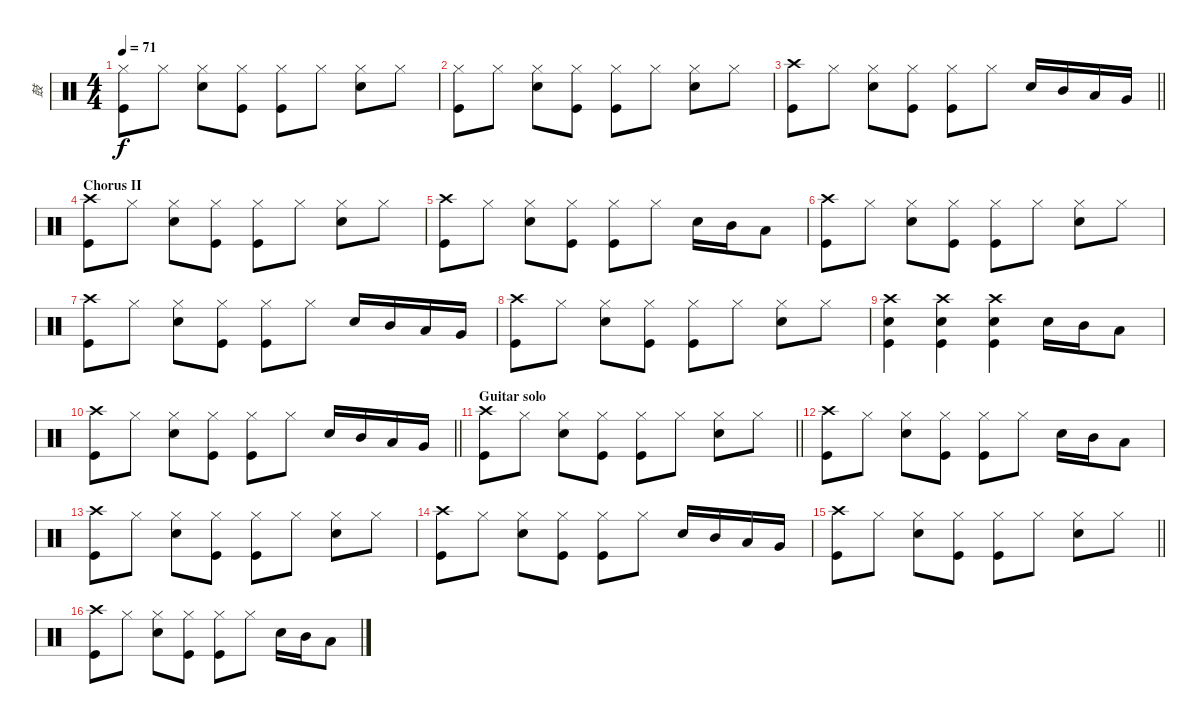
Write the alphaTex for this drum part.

\track ("鼓" "鼓") {instrument percussion}
\staff {score}
\articulation defaults
\ts (4 4)
\tempo 71
\clef neutral
\ks c
("Hi-Hat (closed)" "Kick (hit)").8{dy f} "Hi-Hat (closed)".8 ("Hi-Hat (closed)" "Electric Snare (hit)").8 ("Hi-Hat (closed)" "Kick (hit)").8 ("Hi-Hat (closed)" "Kick (hit)").8 "Hi-Hat (closed)".8 ("Hi-Hat (closed)" "Electric Snare (hit)").8 "Hi-Hat (closed)".8 |
("Hi-Hat (closed)" "Kick (hit)").8 "Hi-Hat (closed)".8 ("Hi-Hat (closed)" "Electric Snare (hit)").8 ("Hi-Hat (closed)" "Kick (hit)").8 ("Hi-Hat (closed)" "Kick (hit)").8 "Hi-Hat (closed)".8 ("Hi-Hat (closed)" "Electric Snare (hit)").8 "Hi-Hat (closed)".8 |
\barLineRight lightlight
("Crash high (hit)" "Kick (hit)").8 "Hi-Hat (closed)".8 ("Hi-Hat (closed)" "Electric Snare (hit)").8 ("Hi-Hat (closed)" "Kick (hit)").8 ("Hi-Hat (closed)" "Kick (hit)").8 "Hi-Hat (closed)".8 "Electric Snare (hit)".16 "Mid Tom (hit)".16 "Low Tom (hit)".16 "Very Low Tom (hit)".16 |
\section ("" "Chorus II")
("Crash high (hit)" "Kick (hit)").8 "Hi-Hat (closed)".8 ("Hi-Hat (closed)" "Electric Snare (hit)").8 ("Hi-Hat (closed)" "Kick (hit)").8 ("Hi-Hat (closed)" "Kick (hit)").8 "Hi-Hat (closed)".8 ("Hi-Hat (closed)" "Electric Snare (hit)").8 "Hi-Hat (closed)".8 |
("Crash high (hit)" "Kick (hit)").8 "Hi-Hat (closed)".8 ("Hi-Hat (closed)" "Electric Snare (hit)").8 ("Hi-Hat (closed)" "Kick (hit)").8 ("Hi-Hat (closed)" "Kick (hit)").8 "Hi-Hat (closed)".8 "Electric Snare (hit)".16 "Mid Tom (hit)".16 "Low Tom (hit)".8 |
("Crash high (hit)" "Kick (hit)").8 "Hi-Hat (closed)".8 ("Hi-Hat (closed)" "Electric Snare (hit)").8 ("Hi-Hat (closed)" "Kick (hit)").8 ("Hi-Hat (closed)" "Kick (hit)").8 "Hi-Hat (closed)".8 ("Hi-Hat (closed)" "Electric Snare (hit)").8 "Hi-Hat (closed)".8 |
("Crash high (hit)" "Kick (hit)").8 "Hi-Hat (closed)".8 ("Hi-Hat (closed)" "Electric Snare (hit)").8 ("Hi-Hat (closed)" "Kick (hit)").8 ("Hi-Hat (closed)" "Kick (hit)").8 "Hi-Hat (closed)".8 "Electric Snare (hit)".16 "Mid Tom (hit)".16 "Low Tom (hit)".16 "Very Low Tom (hit)".16 |
("Crash high (hit)" "Kick (hit)").8 "Hi-Hat (closed)".8 ("Hi-Hat (closed)" "Electric Snare (hit)").8 ("Hi-Hat (closed)" "Kick (hit)").8 ("Hi-Hat (closed)" "Kick (hit)").8 "Hi-Hat (closed)".8 ("Hi-Hat (closed)" "Electric Snare (hit)").8 "Hi-Hat (closed)".8 |
("Crash high (hit)" "Electric Snare (hit)" "Kick (hit)").4 ("Crash high (hit)" "Electric Snare (hit)" "Kick (hit)").4 ("Crash high (hit)" "Electric Snare (hit)" "Kick (hit)").4 "Electric Snare (hit)".16 "Mid Tom (hit)".16 "Low Tom (hit)".8 |
\barLineRight lightlight
("Crash high (hit)" "Kick (hit)").8 "Hi-Hat (closed)".8 ("Hi-Hat (closed)" "Electric Snare (hit)").8 ("Hi-Hat (closed)" "Kick (hit)").8 ("Hi-Hat (closed)" "Kick (hit)").8 "Hi-Hat (closed)".8 "Electric Snare (hit)".16 "Mid Tom (hit)".16 "Low Tom (hit)".16 "Very Low Tom (hit)".16 |
\section ("" "Guitar solo")
\barLineRight lightlight
("Crash high (hit)" "Kick (hit)").8 "Hi-Hat (closed)".8 ("Hi-Hat (closed)" "Electric Snare (hit)").8 ("Hi-Hat (closed)" "Kick (hit)").8 ("Hi-Hat (closed)" "Kick (hit)").8 "Hi-Hat (closed)".8 ("Hi-Hat (closed)" "Electric Snare (hit)").8 "Hi-Hat (closed)".8 |
("Crash high (hit)" "Kick (hit)").8 "Hi-Hat (closed)".8 ("Hi-Hat (closed)" "Electric Snare (hit)").8 ("Hi-Hat (closed)" "Kick (hit)").8 ("Hi-Hat (closed)" "Kick (hit)").8 "Hi-Hat (closed)".8 "Electric Snare (hit)".16 "Mid Tom (hit)".16 "Low Tom (hit)".8 |
("Crash high (hit)" "Kick (hit)").8 "Hi-Hat (closed)".8 ("Hi-Hat (closed)" "Electric Snare (hit)").8 ("Hi-Hat (closed)" "Kick (hit)").8 ("Hi-Hat (closed)" "Kick (hit)").8 "Hi-Hat (closed)".8 ("Hi-Hat (closed)" "Electric Snare (hit)").8 "Hi-Hat (closed)".8 |
("Crash high (hit)" "Kick (hit)").8 "Hi-Hat (closed)".8 ("Hi-Hat (closed)" "Electric Snare (hit)").8 ("Hi-Hat (closed)" "Kick (hit)").8 ("Hi-Hat (closed)" "Kick (hit)").8 "Hi-Hat (closed)".8 "Electric Snare (hit)".16 "Mid Tom (hit)".16 "Low Tom (hit)".16 "Very Low Tom (hit)".16 |
\barLineRight lightlight
("Crash high (hit)" "Kick (hit)").8 "Hi-Hat (closed)".8 ("Hi-Hat (closed)" "Electric Snare (hit)").8 ("Hi-Hat (closed)" "Kick (hit)").8 ("Hi-Hat (closed)" "Kick (hit)").8 "Hi-Hat (closed)".8 ("Hi-Hat (closed)" "Electric Snare (hit)").8 "Hi-Hat (closed)".8 |
("Crash high (hit)" "Kick (hit)").8 "Hi-Hat (closed)".8 ("Hi-Hat (closed)" "Electric Snare (hit)").8 ("Hi-Hat (closed)" "Kick (hit)").8 ("Hi-Hat (closed)" "Kick (hit)").8 "Hi-Hat (closed)".8 "Electric Snare (hit)".16 "Mid Tom (hit)".16 "Low Tom (hit)".8
